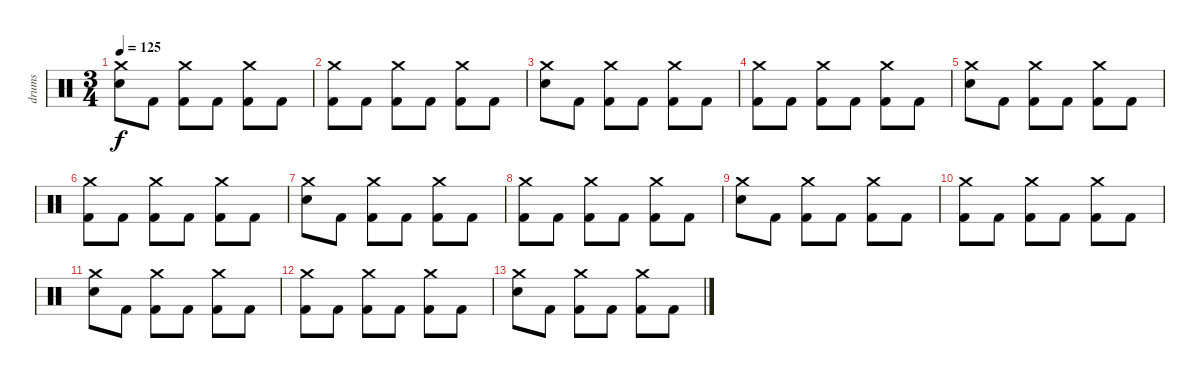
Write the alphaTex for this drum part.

\track ("drums" "drums") {instrument percussion}
\staff {score}
\articulation defaults
\ts (3 4)
\tempo 125
\clef neutral
\ks c
("Crash medium (hit)" "Electric Snare (hit)").8{dy f} "Kick (hit) 2".8 ("Crash medium (hit)" "Kick (hit) 2").8 "Kick (hit) 2".8 ("Crash medium (hit)" "Kick (hit) 2").8 "Kick (hit) 2".8 |
("Crash medium (hit)" "Kick (hit) 2").8{volume 5} "Kick (hit) 2".8 ("Crash medium (hit)" "Kick (hit) 2").8 "Kick (hit) 2".8 ("Crash medium (hit)" "Kick (hit) 2").8 "Kick (hit) 2".8 |
("Crash medium (hit)" "Electric Snare (hit)").8 "Kick (hit) 2".8 ("Crash medium (hit)" "Kick (hit) 2").8 "Kick (hit) 2".8 ("Crash medium (hit)" "Kick (hit) 2").8 "Kick (hit) 2".8 |
("Crash medium (hit)" "Kick (hit) 2").8 "Kick (hit) 2".8 ("Crash medium (hit)" "Kick (hit) 2").8 "Kick (hit) 2".8 ("Crash medium (hit)" "Kick (hit) 2").8 "Kick (hit) 2".8 |
("Crash medium (hit)" "Electric Snare (hit)").8 "Kick (hit) 2".8 ("Crash medium (hit)" "Kick (hit) 2").8 "Kick (hit) 2".8 ("Crash medium (hit)" "Kick (hit) 2").8 "Kick (hit) 2".8 |
("Crash medium (hit)" "Kick (hit) 2").8{volume 0} "Kick (hit) 2".8 ("Crash medium (hit)" "Kick (hit) 2").8 "Kick (hit) 2".8 ("Crash medium (hit)" "Kick (hit) 2").8 "Kick (hit) 2".8 |
("Crash medium (hit)" "Electric Snare (hit)").8 "Kick (hit) 2".8 ("Crash medium (hit)" "Kick (hit) 2").8 "Kick (hit) 2".8 ("Crash medium (hit)" "Kick (hit) 2").8 "Kick (hit) 2".8 |
("Crash medium (hit)" "Kick (hit) 2").8 "Kick (hit) 2".8 ("Crash medium (hit)" "Kick (hit) 2").8 "Kick (hit) 2".8 ("Crash medium (hit)" "Kick (hit) 2").8 "Kick (hit) 2".8 |
("Crash medium (hit)" "Electric Snare (hit)").8 "Kick (hit) 2".8 ("Crash medium (hit)" "Kick (hit) 2").8 "Kick (hit) 2".8 ("Crash medium (hit)" "Kick (hit) 2").8 "Kick (hit) 2".8 |
("Crash medium (hit)" "Kick (hit) 2").8 "Kick (hit) 2".8 ("Crash medium (hit)" "Kick (hit) 2").8 "Kick (hit) 2".8 ("Crash medium (hit)" "Kick (hit) 2").8 "Kick (hit) 2".8 |
("Crash medium (hit)" "Electric Snare (hit)").8 "Kick (hit) 2".8 ("Crash medium (hit)" "Kick (hit) 2").8 "Kick (hit) 2".8 ("Crash medium (hit)" "Kick (hit) 2").8 "Kick (hit) 2".8 |
("Crash medium (hit)" "Kick (hit) 2").8 "Kick (hit) 2".8 ("Crash medium (hit)" "Kick (hit) 2").8 "Kick (hit) 2".8 ("Crash medium (hit)" "Kick (hit) 2").8 "Kick (hit) 2".8 |
("Crash medium (hit)" "Electric Snare (hit)").8 "Kick (hit) 2".8 ("Crash medium (hit)" "Kick (hit) 2").8 "Kick (hit) 2".8 ("Crash medium (hit)" "Kick (hit) 2").8 "Kick (hit) 2".8
